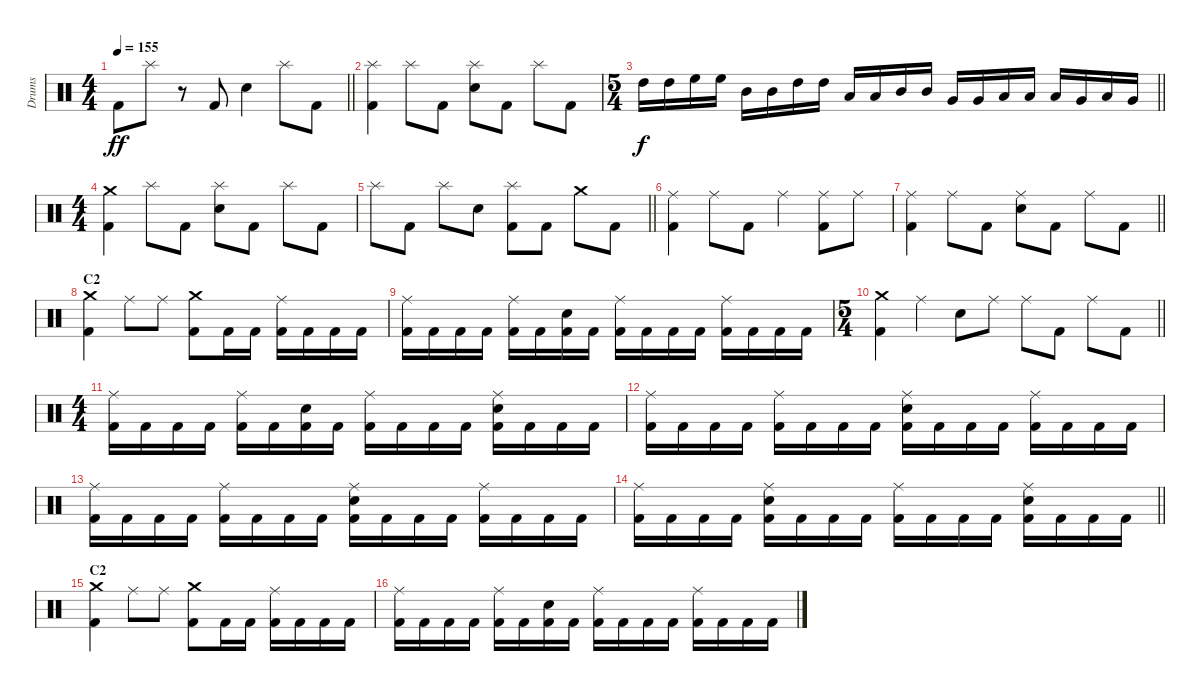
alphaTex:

\track ("Drums" "Drums") {instrument percussion}
\staff {score}
\articulation defaults
\ts (4 4)
\tempo 155
\clef neutral
\barLineRight lightlight
\ks c "Kick (hit) 2".8{dy ff} "Splash (hit)".8
r.8 "Kick (hit) 2".8 "Electric Snare (hit)".4 "Splash (hit)".8 "Kick (hit) 2".8 |
\section ("" "")
("Splash (hit)" "Kick (hit) 2").4 "Splash (hit)".8 "Kick (hit) 2".8 ("Splash (hit)" "Electric Snare (hit)").8 "Kick (hit) 2".8 "Splash (hit)".8 "Kick (hit) 2".8 |
\ts (5 4)
\barLineRight lightlight "High Tom (hit)".16{dy f} "High Tom (hit)".16 "High Floor Tom (hit)".16 "High Floor Tom (hit)".16 "Mid Tom (hit)".16 "Mid Tom (hit)".16 "High Tom (hit)".16 "High Tom (hit)".16 "Low Tom (hit)".16 "Low Tom (hit)".16 "Mid Tom (hit)".16 "Mid Tom (hit)".16 "Very Low Tom (hit)".16 "Very Low Tom (hit)".16 "Low Tom (hit)".16 "Low Tom (hit)".16 "Low Floor Tom (hit)".16 "Very Low Tom (hit)".16 "Low Floor Tom (hit)".16 "Very Low Tom (hit)".16
|
\ts (4 4)
\section ("" "")
("Crash medium (hit)" "Kick (hit) 2").4 "Splash (hit)".8 "Kick (hit) 2".8 ("Splash (hit)" "Electric Snare (hit)").8 "Kick (hit) 2".8 "Splash (hit)".8 "Kick (hit) 2".8 |
\barLineRight lightlight "Splash (hit)".8 "Kick (hit) 2".8 "Splash (hit)".8 "Electric Snare (hit)".8
("Splash (hit)" "Kick (hit) 2").8 "Kick (hit) 2".8 "Crash medium (hit)".8 "Kick (hit) 2".8 |
\section ("" "")
("Ride (middle)" "Kick (hit) 2").4 "Ride (middle)".8 "Kick (hit) 2".8 "Ride (middle)".4 ("Ride (middle)" "Kick (hit) 2").8 "Ride (middle)".8 |
\barLineRight lightlight
("Ride (middle)" "Kick (hit) 2").4 "Ride (middle)".8 "Kick (hit) 2".8 ("Ride (middle)" "Electric Snare (hit)").8 "Kick (hit) 2".8 "Ride (middle)".8 "Kick (hit) 2".8 |
\section ("" "C2")
("Crash medium (hit)" "Kick (hit) 2").4 "Ride (middle)".8 "Ride (middle)".8 ("Crash medium (hit)" "Kick (hit) 2").8 "Kick (hit) 2".16 "Kick (hit) 2".16 ("Ride (middle)" "Kick (hit) 2").16 "Kick (hit) 2".16 "Kick (hit) 2".16 "Kick (hit) 2".16 |
("Ride (middle)" "Kick (hit) 2").16 "Kick (hit) 2".16 "Kick (hit) 2".16 "Kick (hit) 2".16 ("Ride (middle)" "Kick (hit) 2").16 "Kick (hit) 2".16 ("Electric Snare (hit)" "Kick (hit) 2").16 "Kick (hit) 2".16 ("Ride (middle)" "Kick (hit) 2").16 "Kick (hit) 2".16 "Kick (hit) 2".16 "Kick (hit) 2".16 ("Ride (middle)" "Kick (hit) 2").16 "Kick (hit) 2".16 "Kick (hit) 2".16 "Kick (hit) 2".16 |
\ts (5 4)
\barLineRight lightlight
("Crash medium (hit)" "Kick (hit) 2").4 "Ride (middle)".4 "Electric Snare (hit)".8 "Ride (middle)".8 "Ride (middle)".8 "Kick (hit) 2".8 "Ride (middle)".8 "Kick (hit) 2".8 |
\ts (4 4)
\section ("" "")
("Ride (middle)" "Kick (hit) 2").16 "Kick (hit) 2".16 "Kick (hit) 2".16 "Kick (hit) 2".16 ("Ride (middle)" "Kick (hit) 2").16 "Kick (hit) 2".16 ("Electric Snare (hit)" "Kick (hit) 2").16 "Kick (hit) 2".16 ("Ride (middle)" "Kick (hit) 2").16 "Kick (hit) 2".16 "Kick (hit) 2".16 "Kick (hit) 2".16 ("Ride (middle)" "Electric Snare (hit)" "Kick (hit) 2").16 "Kick (hit) 2".16 "Kick (hit) 2".16 "Kick (hit) 2".16 |
("Ride (middle)" "Kick (hit) 2").16 "Kick (hit) 2".16 "Kick (hit) 2".16 "Kick (hit) 2".16 ("Ride (middle)" "Kick (hit) 2").16 "Kick (hit) 2".16 "Kick (hit) 2".16 "Kick (hit) 2".16 ("Ride (middle)" "Electric Snare (hit)" "Kick (hit) 2").16 "Kick (hit) 2".16 "Kick (hit) 2".16 "Kick (hit) 2".16 ("Ride (middle)" "Kick (hit) 2").16 "Kick (hit) 2".16 "Kick (hit) 2".16 "Kick (hit) 2".16 |
("Ride (middle)" "Kick (hit) 2").16 "Kick (hit) 2".16 "Kick (hit) 2".16 "Kick (hit) 2".16 ("Ride (middle)" "Kick (hit) 2").16 "Kick (hit) 2".16 "Kick (hit) 2".16 "Kick (hit) 2".16 ("Ride (middle)" "Electric Snare (hit)" "Kick (hit) 2").16 "Kick (hit) 2".16 "Kick (hit) 2".16 "Kick (hit) 2".16 ("Ride (middle)" "Kick (hit) 2").16 "Kick (hit) 2".16 "Kick (hit) 2".16 "Kick (hit) 2".16 |
\barLineRight lightlight
("Ride (middle)" "Kick (hit) 2").16 "Kick (hit) 2".16 "Kick (hit) 2".16 "Kick (hit) 2".16 ("Ride (middle)" "Electric Snare (hit)" "Kick (hit) 2").16 "Kick (hit) 2".16 "Kick (hit) 2".16 "Kick (hit) 2".16 ("Ride (middle)" "Kick (hit) 2").16 "Kick (hit) 2".16 "Kick (hit) 2".16 "Kick (hit) 2".16 ("Ride (middle)" "Electric Snare (hit)" "Kick (hit) 2").16 "Kick (hit) 2".16 "Kick (hit) 2".16 "Kick (hit) 2".16 |
\section ("" "C2")
("Crash medium (hit)" "Kick (hit) 2").4 "Ride (middle)".8 "Ride (middle)".8 ("Crash medium (hit)" "Kick (hit) 2").8 "Kick (hit) 2".16 "Kick (hit) 2".16 ("Ride (middle)" "Kick (hit) 2").16 "Kick (hit) 2".16 "Kick (hit) 2".16 "Kick (hit) 2".16 |
("Ride (middle)" "Kick (hit) 2").16 "Kick (hit) 2".16 "Kick (hit) 2".16 "Kick (hit) 2".16 ("Ride (middle)" "Kick (hit) 2").16 "Kick (hit) 2".16 ("Electric Snare (hit)" "Kick (hit) 2").16 "Kick (hit) 2".16 ("Ride (middle)" "Kick (hit) 2").16 "Kick (hit) 2".16 "Kick (hit) 2".16 "Kick (hit) 2".16 ("Ride (middle)" "Kick (hit) 2").16 "Kick (hit) 2".16 "Kick (hit) 2".16 "Kick (hit) 2".16
